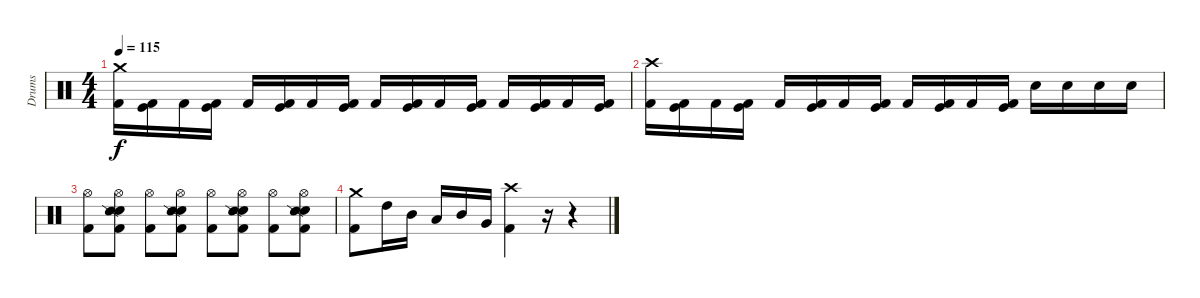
\track ("Drums" "Drums") {instrument percussion}
\staff {score}
\articulation defaults
\ts (4 4)
\tempo 115
\clef neutral
\ks c
("Crash medium (hit)" "Kick (hit) 2").16{dy f} ("Kick (hit)" "Kick (hit) 2").16 "Kick (hit) 2".16 ("Kick (hit)" "Kick (hit) 2").16 "Kick (hit) 2".16 ("Kick (hit)" "Kick (hit) 2").16 "Kick (hit) 2".16 ("Kick (hit)" "Kick (hit) 2").16 "Kick (hit) 2".16 ("Kick (hit)" "Kick (hit) 2").16 "Kick (hit) 2".16 ("Kick (hit)" "Kick (hit) 2").16 "Kick (hit) 2".16 ("Kick (hit)" "Kick (hit) 2").16 "Kick (hit) 2".16 ("Kick (hit)" "Kick (hit) 2").16 |
("Crash high (hit)" "Kick (hit) 2").16 ("Kick (hit)" "Kick (hit) 2").16 "Kick (hit) 2".16 ("Kick (hit)" "Kick (hit) 2").16 "Kick (hit) 2".16 ("Kick (hit)" "Kick (hit) 2").16 "Kick (hit) 2".16 ("Kick (hit)" "Kick (hit) 2").16 "Kick (hit) 2".16 ("Kick (hit)" "Kick (hit) 2").16 "Kick (hit) 2".16 ("Kick (hit)" "Kick (hit) 2").16 "Electric Snare (hit)".16 "Electric Snare (hit)".16 "Electric Snare (hit)".16 "Electric Snare (hit)".16 |
("Hi-Hat (open)" "Kick (hit) 2").8 ("Hi-Hat (open)" "Electric Snare (hit)" "Snare (side stick) 2" "Kick (hit) 2").8 ("Hi-Hat (open)" "Kick (hit) 2").8 ("Hi-Hat (open)" "Electric Snare (hit)" "Snare (side stick) 2" "Kick (hit) 2").8 ("Hi-Hat (open)" "Kick (hit) 2").8 ("Hi-Hat (open)" "Electric Snare (hit)" "Snare (side stick) 2" "Kick (hit) 2").8 ("Hi-Hat (open)" "Kick (hit) 2").8 ("Hi-Hat (open)" "Electric Snare (hit)" "Snare (side stick) 2" "Kick (hit) 2").8 |
("Crash medium (hit)" "Kick (hit) 2").8 "High Tom (hit)".16 "Mid Tom (hit)".16 "Low Tom (hit)".16 "Mid Tom (hit)".16 "Very Low Tom (hit)".16 ("Crash high (hit)" "Kick (hit) 2").4 r.16 r.4
